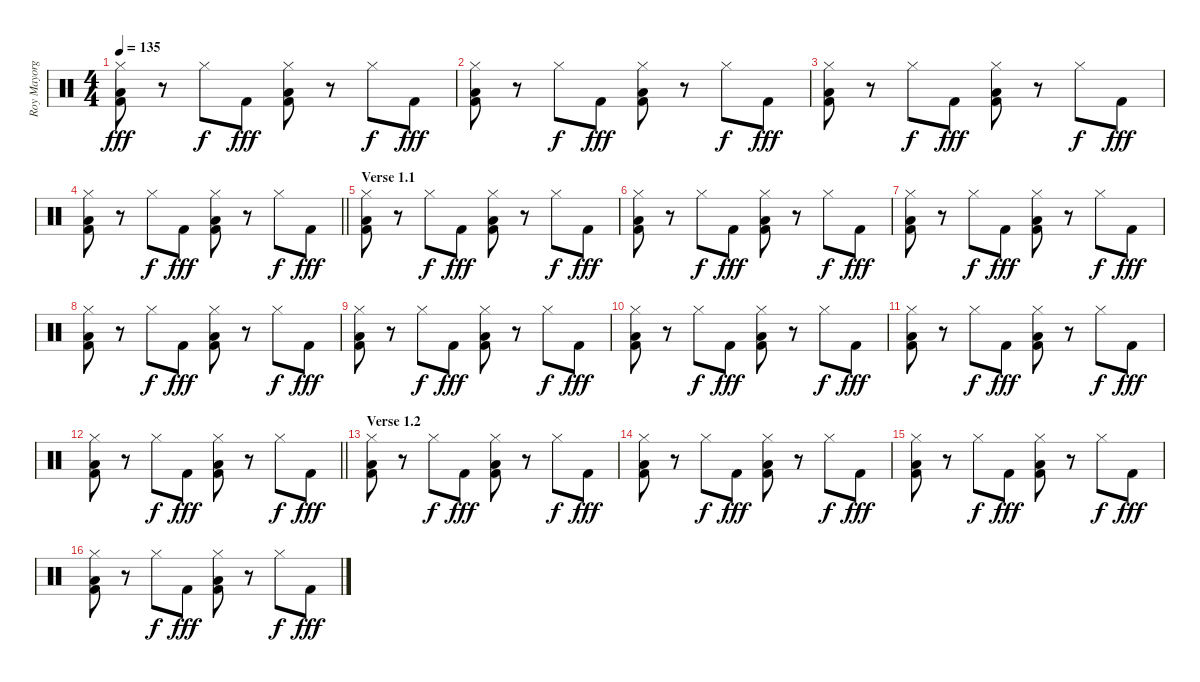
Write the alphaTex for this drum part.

\track ("Roy Mayorga" "Roy Mayorg") {instrument percussion}
\staff {score}
\articulation defaults
\ts (4 4)
\tempo 135
\clef neutral
\ks c
("Hi-Hat (closed)" "Low Floor Tom (hit)" "Kick (hit) 2").8{dy fff} r.8 "Hi-Hat (closed)".8{dy f} "Kick (hit) 2".8{dy fff} ("Hi-Hat (closed)" "Low Tom (hit)" "Kick (hit) 2").8 r.8 "Hi-Hat (closed)".8{dy f} "Kick (hit) 2".8{dy fff} |
("Hi-Hat (closed)" "Low Floor Tom (hit)" "Kick (hit) 2").8 r.8 "Hi-Hat (closed)".8{dy f} "Kick (hit) 2".8{dy fff} ("Hi-Hat (closed)" "Low Tom (hit)" "Kick (hit) 2").8 r.8 "Hi-Hat (closed)".8{dy f} "Kick (hit) 2".8{dy fff} |
("Hi-Hat (closed)" "Low Floor Tom (hit)" "Kick (hit) 2").8 r.8 "Hi-Hat (closed)".8{dy f} "Kick (hit) 2".8{dy fff} ("Hi-Hat (closed)" "Low Tom (hit)" "Kick (hit) 2").8 r.8 "Hi-Hat (closed)".8{dy f} "Kick (hit) 2".8{dy fff} |
\barLineRight lightlight
("Hi-Hat (closed)" "Low Floor Tom (hit)" "Kick (hit) 2").8 r.8 "Hi-Hat (closed)".8{dy f} "Kick (hit) 2".8{dy fff} ("Hi-Hat (closed)" "Low Tom (hit)" "Kick (hit) 2").8 r.8 "Hi-Hat (closed)".8{dy f} "Kick (hit) 2".8{dy fff} |
\section ("" "Verse 1.1")
("Hi-Hat (closed)" "Low Floor Tom (hit)" "Kick (hit) 2").8 r.8 "Hi-Hat (closed)".8{dy f} "Kick (hit) 2".8{dy fff} ("Hi-Hat (closed)" "Low Tom (hit)" "Kick (hit) 2").8 r.8 "Hi-Hat (closed)".8{dy f} "Kick (hit) 2".8{dy fff} |
("Hi-Hat (closed)" "Low Floor Tom (hit)" "Kick (hit) 2").8 r.8 "Hi-Hat (closed)".8{dy f} "Kick (hit) 2".8{dy fff} ("Hi-Hat (closed)" "Low Tom (hit)" "Kick (hit) 2").8 r.8 "Hi-Hat (closed)".8{dy f} "Kick (hit) 2".8{dy fff} |
("Hi-Hat (closed)" "Low Floor Tom (hit)" "Kick (hit) 2").8 r.8 "Hi-Hat (closed)".8{dy f} "Kick (hit) 2".8{dy fff} ("Hi-Hat (closed)" "Low Tom (hit)" "Kick (hit) 2").8 r.8 "Hi-Hat (closed)".8{dy f} "Kick (hit) 2".8{dy fff} |
("Hi-Hat (closed)" "Low Floor Tom (hit)" "Kick (hit) 2").8 r.8 "Hi-Hat (closed)".8{dy f} "Kick (hit) 2".8{dy fff} ("Hi-Hat (closed)" "Low Tom (hit)" "Kick (hit) 2").8 r.8 "Hi-Hat (closed)".8{dy f} "Kick (hit) 2".8{dy fff} |
("Hi-Hat (closed)" "Low Floor Tom (hit)" "Kick (hit) 2").8 r.8 "Hi-Hat (closed)".8{dy f} "Kick (hit) 2".8{dy fff} ("Hi-Hat (closed)" "Low Tom (hit)" "Kick (hit) 2").8 r.8 "Hi-Hat (closed)".8{dy f} "Kick (hit) 2".8{dy fff} |
("Hi-Hat (closed)" "Low Floor Tom (hit)" "Kick (hit) 2").8 r.8 "Hi-Hat (closed)".8{dy f} "Kick (hit) 2".8{dy fff} ("Hi-Hat (closed)" "Low Tom (hit)" "Kick (hit) 2").8 r.8 "Hi-Hat (closed)".8{dy f} "Kick (hit) 2".8{dy fff} |
("Hi-Hat (closed)" "Low Floor Tom (hit)" "Kick (hit) 2").8 r.8 "Hi-Hat (closed)".8{dy f} "Kick (hit) 2".8{dy fff} ("Hi-Hat (closed)" "Low Tom (hit)" "Kick (hit) 2").8 r.8 "Hi-Hat (closed)".8{dy f} "Kick (hit) 2".8{dy fff} |
\barLineRight lightlight
("Hi-Hat (closed)" "Low Floor Tom (hit)" "Kick (hit) 2").8 r.8 "Hi-Hat (closed)".8{dy f} "Kick (hit) 2".8{dy fff} ("Hi-Hat (closed)" "Low Tom (hit)" "Kick (hit) 2").8 r.8 "Hi-Hat (closed)".8{dy f} "Kick (hit) 2".8{dy fff} |
\section ("" "Verse 1.2")
("Hi-Hat (closed)" "Low Floor Tom (hit)" "Kick (hit) 2").8 r.8 "Hi-Hat (closed)".8{dy f} "Kick (hit) 2".8{dy fff} ("Hi-Hat (closed)" "Low Tom (hit)" "Kick (hit) 2").8 r.8 "Hi-Hat (closed)".8{dy f} "Kick (hit) 2".8{dy fff} |
("Hi-Hat (closed)" "Low Floor Tom (hit)" "Kick (hit) 2").8 r.8 "Hi-Hat (closed)".8{dy f} "Kick (hit) 2".8{dy fff} ("Hi-Hat (closed)" "Low Tom (hit)" "Kick (hit) 2").8 r.8 "Hi-Hat (closed)".8{dy f} "Kick (hit) 2".8{dy fff} |
("Hi-Hat (closed)" "Low Floor Tom (hit)" "Kick (hit) 2").8 r.8 "Hi-Hat (closed)".8{dy f} "Kick (hit) 2".8{dy fff} ("Hi-Hat (closed)" "Low Tom (hit)" "Kick (hit) 2").8 r.8 "Hi-Hat (closed)".8{dy f} "Kick (hit) 2".8{dy fff} |
("Hi-Hat (closed)" "Low Floor Tom (hit)" "Kick (hit) 2").8 r.8 "Hi-Hat (closed)".8{dy f} "Kick (hit) 2".8{dy fff} ("Hi-Hat (closed)" "Low Tom (hit)" "Kick (hit) 2").8 r.8 "Hi-Hat (closed)".8{dy f} "Kick (hit) 2".8{dy fff}
